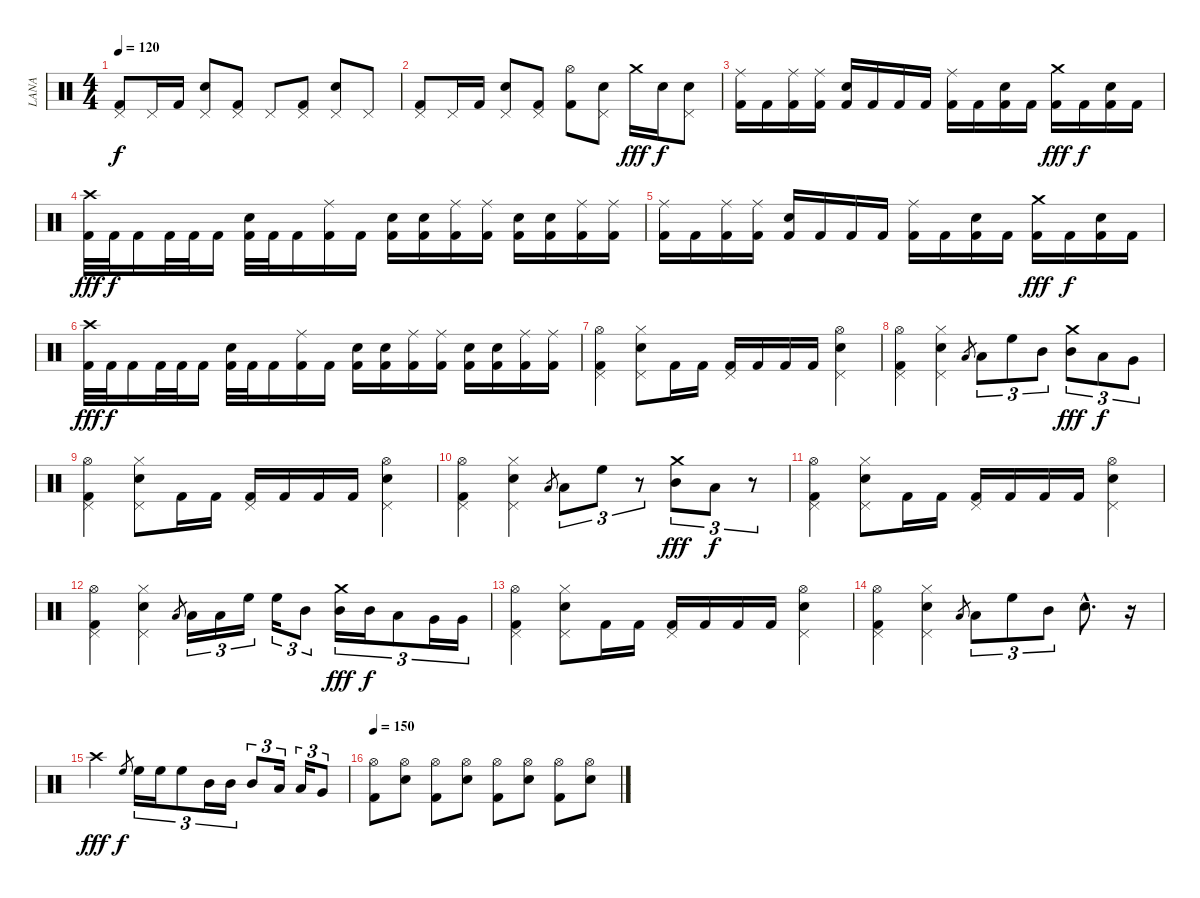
\track ("LANA" "LANA") {instrument percussion}
\staff {score}
\articulation defaults
\ts (4 4)
\tempo 120
\clef neutral
\ks c
("Pedal Hi-Hat (hit)" "Kick (hit) 2").8{dy f} "Pedal Hi-Hat (hit)".16 "Kick (hit) 2".16 ("Pedal Hi-Hat (hit)" "Electric Snare (hit)").8 ("Pedal Hi-Hat (hit)" "Kick (hit) 2").8 "Pedal Hi-Hat (hit)".8 ("Pedal Hi-Hat (hit)" "Kick (hit) 2").8 ("Pedal Hi-Hat (hit)" "Electric Snare (hit)").8 "Pedal Hi-Hat (hit)".8 |
("Pedal Hi-Hat (hit)" "Kick (hit) 2").8 "Pedal Hi-Hat (hit)".16 "Kick (hit) 2".16 ("Pedal Hi-Hat (hit)" "Electric Snare (hit)").8 ("Pedal Hi-Hat (hit)" "Kick (hit) 2").8 ("Hi-Hat (open)" "Kick (hit) 2").8 ("Pedal Hi-Hat (hit)" "Electric Snare (hit)").8 "Crash medium (hit)".16{dy fff} "Electric Snare (hit)".16{dy f} ("Pedal Hi-Hat (hit)" "Electric Snare (hit)").8 |
("Ride (middle)" "Kick (hit) 2").16 "Kick (hit) 2".16 ("Ride (middle)" "Kick (hit) 2").16 ("Ride (middle)" "Kick (hit) 2").16 ("Electric Snare (hit)" "Kick (hit) 2").16 "Kick (hit) 2".16 "Kick (hit) 2".16 "Kick (hit) 2".16 ("Ride (middle)" "Kick (hit) 2").16 "Kick (hit) 2".16 ("Electric Snare (hit)" "Kick (hit) 2").16 "Kick (hit) 2".16 ("Crash medium (hit)" "Kick (hit) 2").16{dy fff} "Kick (hit) 2".16{dy f} ("Electric Snare (hit)" "Kick (hit) 2").16 "Kick (hit) 2".16 |
("Crash high (hit)" "Kick (hit) 2").32{dy fff} "Kick (hit) 2".32{dy f} "Kick (hit) 2".16 "Kick (hit) 2".32 "Kick (hit) 2".32 "Kick (hit) 2".16 ("Electric Snare (hit)" "Kick (hit) 2").32 "Kick (hit) 2".32 "Kick (hit) 2".16 ("Ride (middle)" "Kick (hit) 2").16 "Kick (hit) 2".16 ("Electric Snare (hit)" "Kick (hit) 2").16 ("Electric Snare (hit)" "Kick (hit) 2").16 ("Ride (middle)" "Kick (hit) 2").16 ("Ride (middle)" "Kick (hit) 2").16 ("Electric Snare (hit)" "Kick (hit) 2").16 ("Electric Snare (hit)" "Kick (hit) 2").16 ("Ride (middle)" "Kick (hit) 2").16 ("Ride (middle)" "Kick (hit) 2").16 |
("Ride (middle)" "Kick (hit) 2").16 "Kick (hit) 2".16 ("Ride (middle)" "Kick (hit) 2").16 ("Ride (middle)" "Kick (hit) 2").16 ("Electric Snare (hit)" "Kick (hit) 2").16 "Kick (hit) 2".16 "Kick (hit) 2".16 "Kick (hit) 2".16 ("Ride (middle)" "Kick (hit) 2").16 "Kick (hit) 2".16 ("Electric Snare (hit)" "Kick (hit) 2").16 "Kick (hit) 2".16 ("Crash medium (hit)" "Kick (hit) 2").16{dy fff} "Kick (hit) 2".16{dy f} ("Electric Snare (hit)" "Kick (hit) 2").16 "Kick (hit) 2".16 |
("Crash high (hit)" "Kick (hit) 2").32{dy fff} "Kick (hit) 2".32{dy f} "Kick (hit) 2".16 "Kick (hit) 2".32 "Kick (hit) 2".32 "Kick (hit) 2".16 ("Electric Snare (hit)" "Kick (hit) 2").32 "Kick (hit) 2".32 "Kick (hit) 2".16 ("Ride (middle)" "Kick (hit) 2").16 "Kick (hit) 2".16 ("Electric Snare (hit)" "Kick (hit) 2").16 ("Electric Snare (hit)" "Kick (hit) 2").16 ("Ride (middle)" "Kick (hit) 2").16 ("Ride (middle)" "Kick (hit) 2").16 ("Electric Snare (hit)" "Kick (hit) 2").16 ("Electric Snare (hit)" "Kick (hit) 2").16 ("Ride (middle)" "Kick (hit) 2").16 ("Ride (middle)" "Kick (hit) 2").16 |
("Pedal Hi-Hat (hit)" "Hi-Hat (open)" "Kick (hit) 2").4 ("Pedal Hi-Hat (hit)" "Hi-Hat (closed)" "Electric Snare (hit)").8 "Kick (hit) 2".16 "Kick (hit) 2".16 ("Pedal Hi-Hat (hit)" "Kick (hit) 2").16 "Kick (hit) 2".16 "Kick (hit) 2".16 "Kick (hit) 2".16 ("Pedal Hi-Hat (hit)" "Hi-Hat (open)" "Electric Snare (hit)").4 |
("Pedal Hi-Hat (hit)" "Hi-Hat (open)" "Kick (hit) 2").4 ("Pedal Hi-Hat (hit)" "Hi-Hat (closed)" "Electric Snare (hit)").4 "Low Tom (hit)".8{gr} "Low Tom (hit)".8{tu (3 2)} "High Floor Tom (hit)".8{tu (3 2)} "Mid Tom (hit)".8{tu (3 2)} ("Crash medium (hit)" "Mid Tom (hit)").8{tu (3 2) dy fff} "Low Tom (hit)".8{tu (3 2) dy f} "Very Low Tom (hit)".8{tu (3 2)} |
("Pedal Hi-Hat (hit)" "Hi-Hat (open)" "Kick (hit) 2").4 ("Pedal Hi-Hat (hit)" "Hi-Hat (closed)" "Electric Snare (hit)").8 "Kick (hit) 2".16 "Kick (hit) 2".16 ("Pedal Hi-Hat (hit)" "Kick (hit) 2").16 "Kick (hit) 2".16 "Kick (hit) 2".16 "Kick (hit) 2".16 ("Pedal Hi-Hat (hit)" "Hi-Hat (open)" "Electric Snare (hit)").4 |
("Pedal Hi-Hat (hit)" "Hi-Hat (open)" "Kick (hit) 2").4 ("Pedal Hi-Hat (hit)" "Hi-Hat (closed)" "Electric Snare (hit)").4 "Low Tom (hit)".8{gr} "Low Tom (hit)".8{tu (3 2)} "High Floor Tom (hit)".8{tu (3 2)} r.8{tu (3 2)} ("Crash medium (hit)" "Mid Tom (hit)").8{tu (3 2) dy fff} "Low Tom (hit)".8{tu (3 2) dy f} r.8{tu (3 2)} |
("Pedal Hi-Hat (hit)" "Hi-Hat (open)" "Kick (hit) 2").4 ("Pedal Hi-Hat (hit)" "Hi-Hat (closed)" "Electric Snare (hit)").8 "Kick (hit) 2".16 "Kick (hit) 2".16 ("Pedal Hi-Hat (hit)" "Kick (hit) 2").16 "Kick (hit) 2".16 "Kick (hit) 2".16 "Kick (hit) 2".16 ("Pedal Hi-Hat (hit)" "Hi-Hat (open)" "Electric Snare (hit)").4 |
("Pedal Hi-Hat (hit)" "Hi-Hat (open)" "Kick (hit) 2").4 ("Pedal Hi-Hat (hit)" "Hi-Hat (closed)" "Electric Snare (hit)").4 "Low Tom (hit)".8{gr} "Low Tom (hit)".16{tu (3 2)} "Low Tom (hit)".16{tu (3 2)} "High Floor Tom (hit)".16{tu (3 2)} "High Floor Tom (hit)".16{tu (3 2)} "Mid Tom (hit)".8{tu (3 2)} ("Crash medium (hit)" "Mid Tom (hit)").16{tu (3 2) dy fff} "Mid Tom (hit)".16{tu (3 2) dy f} "Low Tom (hit)".8{tu (3 2)} "Very Low Tom (hit)".16{tu (3 2)} "Very Low Tom (hit)".16{tu (3 2)} |
("Pedal Hi-Hat (hit)" "Hi-Hat (open)" "Kick (hit) 2").4 ("Pedal Hi-Hat (hit)" "Hi-Hat (closed)" "Electric Snare (hit)").8 "Kick (hit) 2".16 "Kick (hit) 2".16 ("Pedal Hi-Hat (hit)" "Kick (hit) 2").16 "Kick (hit) 2".16 "Kick (hit) 2".16 "Kick (hit) 2".16 ("Pedal Hi-Hat (hit)" "Hi-Hat (open)" "Electric Snare (hit)").4 |
("Pedal Hi-Hat (hit)" "Hi-Hat (open)" "Kick (hit) 2").4 ("Pedal Hi-Hat (hit)" "Hi-Hat (closed)" "Electric Snare (hit)").4 "Low Tom (hit)".8{gr} "Low Tom (hit)".8{tu (3 2)} "High Floor Tom (hit)".8{tu (3 2)} "Mid Tom (hit)".8{tu (3 2)} "Electric Snare (hit)"{hac}.8{d} r.16 |
"Crash high (hit)".2{dy fff} "High Floor Tom (hit)".8{gr dy f} "High Floor Tom (hit)".16{tu (3 2)} "High Floor Tom (hit)".16{tu (3 2)} "High Floor Tom (hit)".8{tu (3 2)} "Mid Tom (hit)".16{tu (3 2)} "Mid Tom (hit)".16{tu (3 2)} "Mid Tom (hit)".8{tu (3 2)} "Low Tom (hit)".16{tu (3 2)} "Low Tom (hit)".16{tu (3 2)} "Very Low Tom (hit)".8{tu (3 2)} |
\tempo 150
("Hi-Hat (open)" "Kick (hit) 2").8 ("Hi-Hat (open)" "Electric Snare (hit)").8 ("Hi-Hat (open)" "Kick (hit) 2").8 ("Hi-Hat (open)" "Electric Snare (hit)").8 ("Hi-Hat (open)" "Kick (hit) 2").8 ("Hi-Hat (open)" "Electric Snare (hit)").8 ("Hi-Hat (open)" "Kick (hit) 2").8 ("Hi-Hat (open)" "Electric Snare (hit)").8
